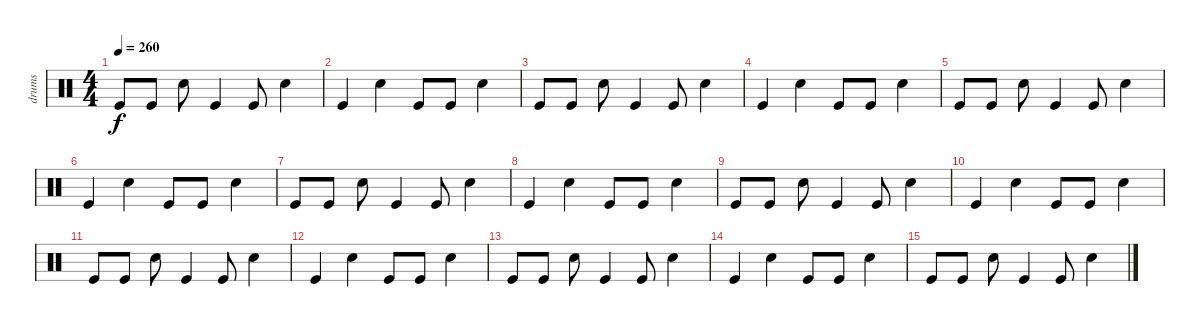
\track ("drums" "drums") {instrument percussion}
\staff {score}
\articulation defaults
\ts (4 4)
\tempo 260
\clef neutral
\ks c "Kick (hit)".8{dy f} "Kick (hit)".8 "Snare (hit) 2".8 "Kick (hit)".4 "Kick (hit)".8 "Snare (hit) 2".4
|
"Kick (hit)".4 "Snare (hit) 2".4 "Kick (hit)".8 "Kick (hit)".8 "Snare (hit) 2".4 |
"Kick (hit)".8 "Kick (hit)".8 "Snare (hit) 2".8 "Kick (hit)".4 "Kick (hit)".8 "Snare (hit) 2".4 |
"Kick (hit)".4 "Snare (hit) 2".4 "Kick (hit)".8 "Kick (hit)".8 "Snare (hit) 2".4 |
"Kick (hit)".8 "Kick (hit)".8 "Snare (hit) 2".8 "Kick (hit)".4 "Kick (hit)".8 "Snare (hit) 2".4 |
"Kick (hit)".4 "Snare (hit) 2".4 "Kick (hit)".8 "Kick (hit)".8 "Snare (hit) 2".4 |
"Kick (hit)".8 "Kick (hit)".8 "Snare (hit) 2".8 "Kick (hit)".4 "Kick (hit)".8 "Snare (hit) 2".4 |
"Kick (hit)".4 "Snare (hit) 2".4 "Kick (hit)".8 "Kick (hit)".8 "Snare (hit) 2".4 |
"Kick (hit)".8 "Kick (hit)".8 "Snare (hit) 2".8 "Kick (hit)".4 "Kick (hit)".8 "Snare (hit) 2".4 |
"Kick (hit)".4 "Snare (hit) 2".4 "Kick (hit)".8 "Kick (hit)".8 "Snare (hit) 2".4 |
"Kick (hit)".8 "Kick (hit)".8 "Snare (hit) 2".8 "Kick (hit)".4 "Kick (hit)".8 "Snare (hit) 2".4 |
"Kick (hit)".4 "Snare (hit) 2".4 "Kick (hit)".8 "Kick (hit)".8 "Snare (hit) 2".4 |
"Kick (hit)".8 "Kick (hit)".8 "Snare (hit) 2".8 "Kick (hit)".4 "Kick (hit)".8 "Snare (hit) 2".4 |
"Kick (hit)".4 "Snare (hit) 2".4 "Kick (hit)".8 "Kick (hit)".8 "Snare (hit) 2".4 |
"Kick (hit)".8 "Kick (hit)".8 "Snare (hit) 2".8 "Kick (hit)".4 "Kick (hit)".8 "Snare (hit) 2".4
